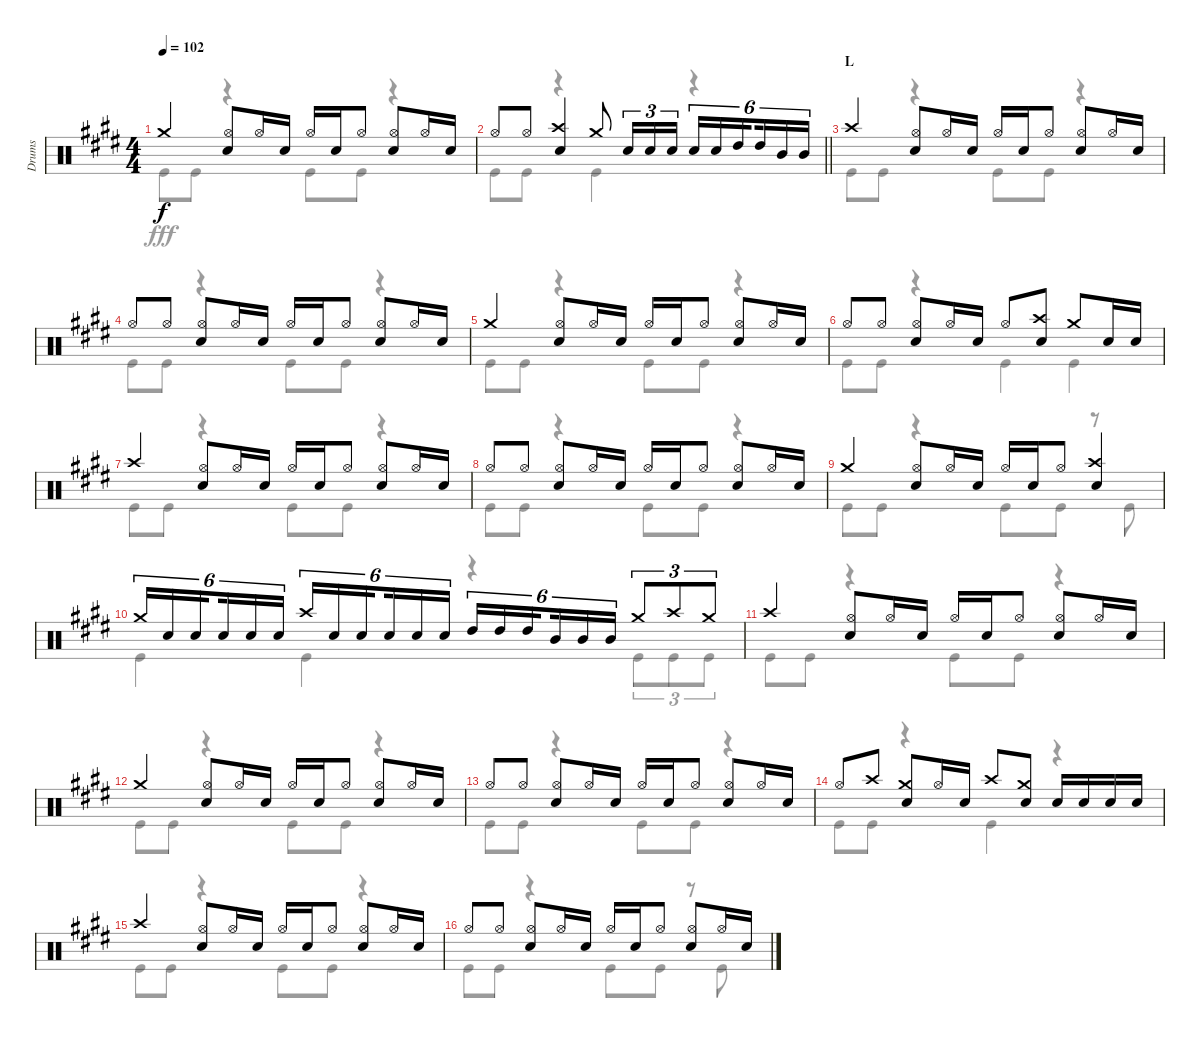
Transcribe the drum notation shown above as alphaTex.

\track ("Drums" "Drums") {instrument percussion}
\staff {score}
\articulation defaults
\voice
\ts (4 4)
\tempo 102
\clef neutral
\ks e "Crash medium (hit)".4{dy f}
("Hi-Hat (open)" "Snare (hit) 2").8 "Hi-Hat (open)".16 "Snare (hit) 2".16 "Hi-Hat (open)".16 "Snare (hit) 2".16 "Hi-Hat (open)".8 ("Hi-Hat (open)" "Snare (hit) 2").8 "Hi-Hat (open)".16 "Snare (hit) 2".16 |
\barLineRight lightlight "Hi-Hat (open)".8 "Hi-Hat (open)".8
("Crash high (hit)" "Snare (hit) 2").4 "Crash medium (hit)".8 "Snare (hit) 2".16{tu (3 2)} "Snare (hit) 2".16{tu (3 2)} "Snare (hit) 2".16{tu (3 2)} "Snare (hit) 2".16{tu (6 4)} "Snare (hit) 2".16{tu (6 4)} "High Tom (hit)".16{tu (6 4) beam splitsecondary} "High Tom (hit)".16{tu (6 4)} "Mid Tom (hit)".16{tu (6 4)} "Mid Tom (hit)".16{tu (6 4)} |
\section ("" "L")
"Crash high (hit)".4 ("Hi-Hat (open)" "Snare (hit) 2").8 "Hi-Hat (open)".16 "Snare (hit) 2".16 "Hi-Hat (open)".16 "Snare (hit) 2".16 "Hi-Hat (open)".8 ("Hi-Hat (open)" "Snare (hit) 2").8 "Hi-Hat (open)".16 "Snare (hit) 2".16 |
"Hi-Hat (open)".8 "Hi-Hat (open)".8 ("Hi-Hat (open)" "Snare (hit) 2").8 "Hi-Hat (open)".16 "Snare (hit) 2".16 "Hi-Hat (open)".16 "Snare (hit) 2".16 "Hi-Hat (open)".8 ("Hi-Hat (open)" "Snare (hit) 2").8 "Hi-Hat (open)".16 "Snare (hit) 2".16 |
"Crash medium (hit)".4 ("Hi-Hat (open)" "Snare (hit) 2").8 "Hi-Hat (open)".16 "Snare (hit) 2".16 "Hi-Hat (open)".16 "Snare (hit) 2".16 "Hi-Hat (open)".8 ("Hi-Hat (open)" "Snare (hit) 2").8 "Hi-Hat (open)".16 "Snare (hit) 2".16 |
"Hi-Hat (open)".8 "Hi-Hat (open)".8 ("Hi-Hat (open)" "Snare (hit) 2").8 "Hi-Hat (open)".16 "Snare (hit) 2".16 "Hi-Hat (open)".8 ("Crash high (hit)" "Snare (hit) 2").8 "Crash medium (hit)".8 "Snare (hit) 2".16 "Snare (hit) 2".16 |
"Crash high (hit)".4 ("Hi-Hat (open)" "Snare (hit) 2").8 "Hi-Hat (open)".16 "Snare (hit) 2".16 "Hi-Hat (open)".16 "Snare (hit) 2".16 "Hi-Hat (open)".8 ("Hi-Hat (open)" "Snare (hit) 2").8 "Hi-Hat (open)".16 "Snare (hit) 2".16 |
"Hi-Hat (open)".8 "Hi-Hat (open)".8 ("Hi-Hat (open)" "Snare (hit) 2").8 "Hi-Hat (open)".16 "Snare (hit) 2".16 "Hi-Hat (open)".16 "Snare (hit) 2".16 "Hi-Hat (open)".8 ("Hi-Hat (open)" "Snare (hit) 2").8 "Hi-Hat (open)".16 "Snare (hit) 2".16 |
"Crash medium (hit)".4 ("Hi-Hat (open)" "Snare (hit) 2").8 "Hi-Hat (open)".16 "Snare (hit) 2".16 "Hi-Hat (open)".16 "Snare (hit) 2".16 "Hi-Hat (open)".8 ("Crash high (hit)" "Snare (hit) 2").4 |
"Crash medium (hit)".16{tu (6 4)} "Snare (hit) 2".16{tu (6 4)} "Snare (hit) 2".16{tu (6 4) beam splitsecondary} "Snare (hit) 2".16{tu (6 4)} "Snare (hit) 2".16{tu (6 4)} "Snare (hit) 2".16{tu (6 4)} "Crash high (hit)".16{tu (6 4)} "Snare (hit) 2".16{tu (6 4)} "Snare (hit) 2".16{tu (6 4) beam splitsecondary} "Snare (hit) 2".16{tu (6 4)} "Snare (hit) 2".16{tu (6 4)} "Snare (hit) 2".16{tu (6 4)} "High Tom (hit)".16{tu (6 4)} "High Tom (hit)".16{tu (6 4)} "High Tom (hit)".16{tu (6 4) beam splitsecondary} "Mid Tom (hit)".16{tu (6 4)} "Mid Tom (hit)".16{tu (6 4)} "Mid Tom (hit)".16{tu (6 4)} "Crash medium (hit)".8{tu (3 2)} "Crash high (hit)".8{tu (3 2)} "Crash medium (hit)".8{tu (3 2)} |
"Crash high (hit)".4 ("Hi-Hat (open)" "Snare (hit) 2").8 "Hi-Hat (open)".16 "Snare (hit) 2".16 "Hi-Hat (open)".16 "Snare (hit) 2".16 "Hi-Hat (open)".8 ("Hi-Hat (open)" "Snare (hit) 2").8 "Hi-Hat (open)".16 "Snare (hit) 2".16 |
"Crash medium (hit)".4 ("Hi-Hat (open)" "Snare (hit) 2").8 "Hi-Hat (open)".16 "Snare (hit) 2".16 "Hi-Hat (open)".16 "Snare (hit) 2".16 "Hi-Hat (open)".8 ("Hi-Hat (open)" "Snare (hit) 2").8 "Hi-Hat (open)".16 "Snare (hit) 2".16 |
"Hi-Hat (open)".8 "Hi-Hat (open)".8 ("Hi-Hat (open)" "Snare (hit) 2").8 "Hi-Hat (open)".16 "Snare (hit) 2".16 "Hi-Hat (open)".16 "Snare (hit) 2".16 "Hi-Hat (open)".8 ("Hi-Hat (open)" "Snare (hit) 2").8 "Hi-Hat (open)".16 "Snare (hit) 2".16 |
"Hi-Hat (open)".8 "Crash high (hit)".8 ("Crash medium (hit)" "Snare (hit) 2").8 "Hi-Hat (open)".16 "Snare (hit) 2".16 "Crash high (hit)".8 ("Crash medium (hit)" "Snare (hit) 2").8 "Snare (hit) 2".16 "Snare (hit) 2".16 "Snare (hit) 2".16 "Snare (hit) 2".16 |
"Crash high (hit)".4 ("Hi-Hat (open)" "Snare (hit) 2").8 "Hi-Hat (open)".16 "Snare (hit) 2".16 "Hi-Hat (open)".16 "Snare (hit) 2".16 "Hi-Hat (open)".8 ("Hi-Hat (open)" "Snare (hit) 2").8 "Hi-Hat (open)".16 "Snare (hit) 2".16 |
"Hi-Hat (open)".8 "Hi-Hat (open)".8 ("Hi-Hat (open)" "Snare (hit) 2").8 "Hi-Hat (open)".16 "Snare (hit) 2".16 "Hi-Hat (open)".16 "Snare (hit) 2".16 "Hi-Hat (open)".8 ("Hi-Hat (open)" "Snare (hit) 2").8 "Hi-Hat (open)".16 "Snare (hit) 2".16
\voice
\clef neutral
\ottava regular
\simile none
\ks e "Kick (hit)".8{dy fff} "Kick (hit)".8
r.4 "Kick (hit)".8 "Kick (hit)".8 r.4 |
\barLineRight lightlight "Kick (hit)".8 "Kick (hit)".8
r.4 "Kick (hit)".4 r.4 |
"Kick (hit)".8 "Kick (hit)".8 r.4 "Kick (hit)".8 "Kick (hit)".8 r.4 |
"Kick (hit)".8 "Kick (hit)".8 r.4 "Kick (hit)".8 "Kick (hit)".8 r.4 |
"Kick (hit)".8 "Kick (hit)".8 r.4 "Kick (hit)".8 "Kick (hit)".8 r.4 |
"Kick (hit)".8 "Kick (hit)".8 r.4 "Kick (hit)".4 "Kick (hit)".4 |
"Kick (hit)".8 "Kick (hit)".8 r.4 "Kick (hit)".8 "Kick (hit)".8 r.4 |
"Kick (hit)".8 "Kick (hit)".8 r.4 "Kick (hit)".8 "Kick (hit)".8 r.4 |
"Kick (hit)".8 "Kick (hit)".8 r.4 "Kick (hit)".8 "Kick (hit)".8 r.8 "Kick (hit)".8 |
"Kick (hit)".4 "Kick (hit)".4 r.4 "Kick (hit)".8{tu (3 2)} "Kick (hit)".8{tu (3 2)} "Kick (hit)".8{tu (3 2)} |
"Kick (hit)".8 "Kick (hit)".8 r.4 "Kick (hit)".8 "Kick (hit)".8 r.4 |
"Kick (hit)".8 "Kick (hit)".8 r.4 "Kick (hit)".8 "Kick (hit)".8 r.4 |
"Kick (hit)".8 "Kick (hit)".8 r.4 "Kick (hit)".8 "Kick (hit)".8 r.4 |
"Kick (hit)".8 "Kick (hit)".8 r.4 "Kick (hit)".4 r.4 |
"Kick (hit)".8 "Kick (hit)".8 r.4 "Kick (hit)".8 "Kick (hit)".8 r.4 |
"Kick (hit)".8 "Kick (hit)".8 r.4 "Kick (hit)".8 "Kick (hit)".8 r.8 "Kick (hit)".8
